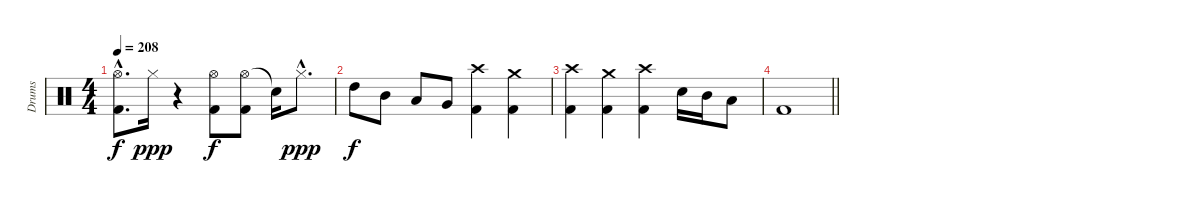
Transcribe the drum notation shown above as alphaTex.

\track ("Drums" "Drums") {instrument percussion}
\staff {score}
\articulation defaults
\ts (4 4)
\tempo 208
\clef neutral
\ks c
("Hi-Hat (open)"{hac} "Kick (hit) 2"{hac}).8{d dy f} "Hi-Hat (closed)".16{dy ppp} r.4 ("Hi-Hat (open)" "Kick (hit) 2").8{dy f} ("Hi-Hat (open)" "Kick (hit) 2").8 "Snare (hit)"{t}.16 "Hi-Hat (closed)"{hac}.8{d dy ppp} |
"High Tom (hit)".8{dy f} "Mid Tom (hit)".8 "Low Tom (hit)".8 "Very Low Tom (hit)".8 ("Crash high (hit)" "Kick (hit) 2").4 ("Crash medium (hit)" "Kick (hit) 2").4 |
("Crash high (hit)" "Kick (hit) 2").4 ("Crash medium (hit)" "Kick (hit) 2").4 ("Crash high (hit)" "Kick (hit) 2").4 "Electric Snare (hit)".16 "Mid Tom (hit)".16 "Low Tom (hit)".8 |
\barLineRight lightlight "Kick (hit) 2".1
